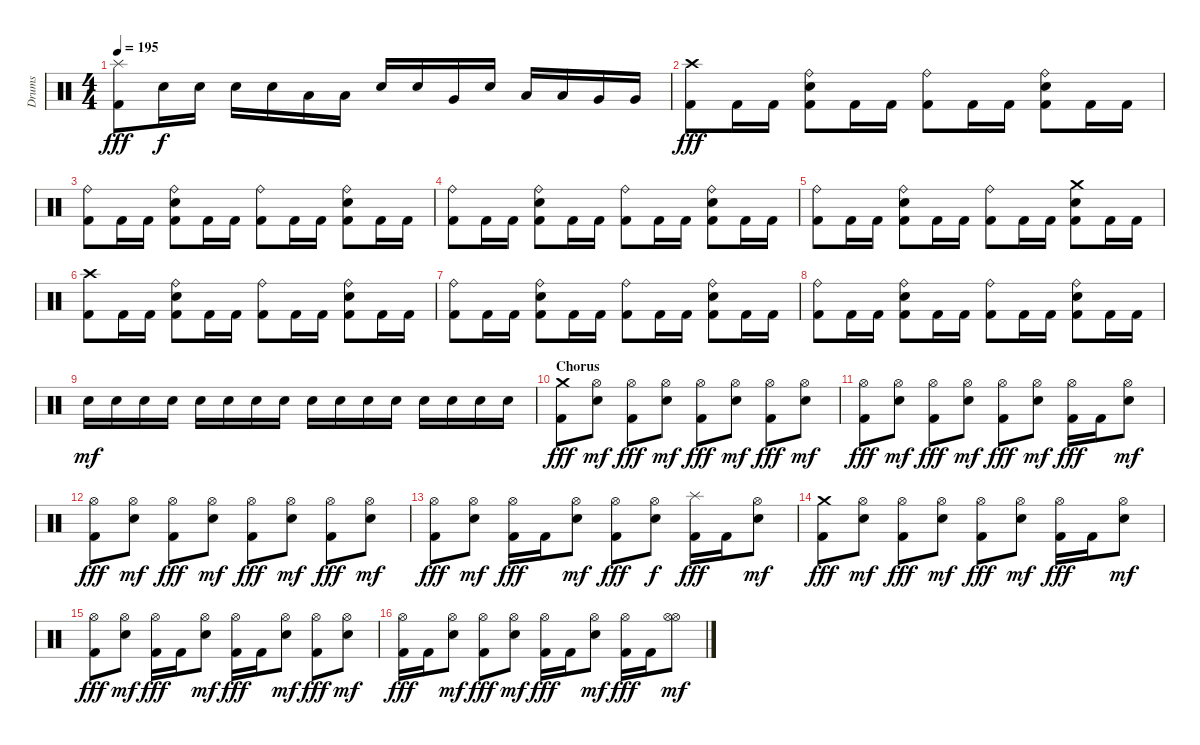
\track ("Drums" "Drums") {instrument percussion}
\staff {score}
\articulation defaults
\ts (4 4)
\tempo 195
\clef neutral
\ks c
("Splash (hit)" "Kick (hit) 2").8{dy fff} "Snare (hit) 2".16{dy f} "Snare (hit) 2".16 "Snare (hit) 2".16 "Snare (hit) 2".16 "Low Tom (hit)".16 "Low Tom (hit)".16 "Snare (hit) 2".16 "Snare (hit) 2".16 "Very Low Tom (hit)".16 "Snare (hit) 2".16 "Low Tom (hit)".16 "Low Tom (hit)".16 "Very Low Tom (hit)".16 "Very Low Tom (hit)".16 |
("Crash high (hit)" "Kick (hit) 2").8{dy fff} "Kick (hit) 2".16 "Kick (hit) 2".16 ("Ride (bell)" "Snare (hit) 2" "Kick (hit) 2").8 "Kick (hit) 2".16 "Kick (hit) 2".16 ("Ride (bell)" "Kick (hit) 2").8 "Kick (hit) 2".16 "Kick (hit) 2".16 ("Ride (bell)" "Snare (hit) 2" "Kick (hit) 2").8 "Kick (hit) 2".16 "Kick (hit) 2".16 |
("Ride (bell)" "Kick (hit) 2").8 "Kick (hit) 2".16 "Kick (hit) 2".16 ("Ride (bell)" "Snare (hit) 2" "Kick (hit) 2").8 "Kick (hit) 2".16 "Kick (hit) 2".16 ("Ride (bell)" "Kick (hit) 2").8 "Kick (hit) 2".16 "Kick (hit) 2".16 ("Ride (bell)" "Snare (hit) 2" "Kick (hit) 2").8 "Kick (hit) 2".16 "Kick (hit) 2".16 |
("Ride (bell)" "Kick (hit) 2").8 "Kick (hit) 2".16 "Kick (hit) 2".16 ("Ride (bell)" "Snare (hit) 2" "Kick (hit) 2").8 "Kick (hit) 2".16 "Kick (hit) 2".16 ("Ride (bell)" "Kick (hit) 2").8 "Kick (hit) 2".16 "Kick (hit) 2".16 ("Ride (bell)" "Snare (hit) 2" "Kick (hit) 2").8 "Kick (hit) 2".16 "Kick (hit) 2".16 |
("Ride (bell)" "Kick (hit) 2").8 "Kick (hit) 2".16 "Kick (hit) 2".16 ("Ride (bell)" "Snare (hit) 2" "Kick (hit) 2").8 "Kick (hit) 2".16 "Kick (hit) 2".16 ("Ride (bell)" "Kick (hit) 2").8 "Kick (hit) 2".16 "Kick (hit) 2".16 ("Crash medium (hit)" "Snare (hit) 2" "Kick (hit) 2").8 "Kick (hit) 2".16 "Kick (hit) 2".16 |
("Crash high (hit)" "Kick (hit) 2").8 "Kick (hit) 2".16 "Kick (hit) 2".16 ("Ride (bell)" "Snare (hit) 2" "Kick (hit) 2").8 "Kick (hit) 2".16 "Kick (hit) 2".16 ("Ride (bell)" "Kick (hit) 2").8 "Kick (hit) 2".16 "Kick (hit) 2".16 ("Ride (bell)" "Snare (hit) 2" "Kick (hit) 2").8 "Kick (hit) 2".16 "Kick (hit) 2".16 |
("Ride (bell)" "Kick (hit) 2").8 "Kick (hit) 2".16 "Kick (hit) 2".16 ("Ride (bell)" "Snare (hit) 2" "Kick (hit) 2").8 "Kick (hit) 2".16 "Kick (hit) 2".16 ("Ride (bell)" "Kick (hit) 2").8 "Kick (hit) 2".16 "Kick (hit) 2".16 ("Ride (bell)" "Snare (hit) 2" "Kick (hit) 2").8 "Kick (hit) 2".16 "Kick (hit) 2".16 |
("Ride (bell)" "Kick (hit) 2").8 "Kick (hit) 2".16 "Kick (hit) 2".16 ("Ride (bell)" "Snare (hit) 2" "Kick (hit) 2").8 "Kick (hit) 2".16 "Kick (hit) 2".16 ("Ride (bell)" "Kick (hit) 2").8 "Kick (hit) 2".16 "Kick (hit) 2".16 ("Ride (bell)" "Snare (hit) 2" "Kick (hit) 2").8 "Kick (hit) 2".16 "Kick (hit) 2".16 |
"Snare (hit) 2".16{dy mf} "Snare (hit) 2".16 "Snare (hit) 2".16 "Snare (hit) 2".16 "Snare (hit) 2".16 "Snare (hit) 2".16 "Snare (hit) 2".16 "Snare (hit) 2".16 "Snare (hit) 2".16 "Snare (hit) 2".16 "Snare (hit) 2".16 "Snare (hit) 2".16 "Snare (hit) 2".16 "Snare (hit) 2".16 "Snare (hit) 2".16 "Snare (hit) 2".16 |
\section ("" "Chorus")
("Crash medium (hit)" "Kick (hit) 2").8{dy fff} ("Hi-Hat (open)" "Snare (hit) 2").8{dy mf} ("Hi-Hat (open)" "Kick (hit) 2").8{dy fff} ("Hi-Hat (open)" "Snare (hit) 2").8{dy mf} ("Hi-Hat (open)" "Kick (hit) 2").8{dy fff} ("Hi-Hat (open)" "Snare (hit) 2").8{dy mf} ("Hi-Hat (open)" "Kick (hit) 2").8{dy fff} ("Hi-Hat (open)" "Snare (hit) 2").8{dy mf} |
("Hi-Hat (open)" "Kick (hit) 2").8{dy fff} ("Hi-Hat (open)" "Snare (hit) 2").8{dy mf} ("Hi-Hat (open)" "Kick (hit) 2").8{dy fff} ("Hi-Hat (open)" "Snare (hit) 2").8{dy mf} ("Hi-Hat (open)" "Kick (hit) 2").8{dy fff} ("Hi-Hat (open)" "Snare (hit) 2").8{dy mf} ("Hi-Hat (open)" "Kick (hit) 2").16{dy fff} "Kick (hit) 2".16 ("Hi-Hat (open)" "Snare (hit) 2").8{dy mf} |
("Hi-Hat (open)" "Kick (hit) 2").8{dy fff} ("Hi-Hat (open)" "Snare (hit) 2").8{dy mf} ("Hi-Hat (open)" "Kick (hit) 2").8{dy fff} ("Hi-Hat (open)" "Snare (hit) 2").8{dy mf} ("Hi-Hat (open)" "Kick (hit) 2").8{dy fff} ("Hi-Hat (open)" "Snare (hit) 2").8{dy mf} ("Hi-Hat (open)" "Kick (hit) 2").8{dy fff} ("Hi-Hat (open)" "Snare (hit) 2").8{dy mf} |
("Hi-Hat (open)" "Kick (hit) 2").8{dy fff} ("Hi-Hat (open)" "Snare (hit) 2").8{dy mf} ("Hi-Hat (open)" "Kick (hit) 2").16{dy fff} "Kick (hit) 2".16 ("Hi-Hat (open)" "Snare (hit) 2").8{dy mf} ("Hi-Hat (open)" "Kick (hit) 2").8{dy fff} ("Hi-Hat (open)" "Snare (hit) 2").8{dy f} ("Splash (hit)" "Kick (hit) 2").16{dy fff} "Kick (hit) 2".16 ("Hi-Hat (open)" "Snare (hit) 2").8{dy mf} |
("Crash medium (hit)" "Kick (hit) 2").8{dy fff} ("Hi-Hat (open)" "Snare (hit) 2").8{dy mf} ("Hi-Hat (open)" "Kick (hit) 2").8{dy fff} ("Hi-Hat (open)" "Snare (hit) 2").8{dy mf} ("Hi-Hat (open)" "Kick (hit) 2").8{dy fff} ("Hi-Hat (open)" "Snare (hit) 2").8{dy mf} ("Hi-Hat (open)" "Kick (hit) 2").16{dy fff} "Kick (hit) 2".16 ("Hi-Hat (open)" "Snare (hit) 2").8{dy mf} |
("Hi-Hat (open)" "Kick (hit) 2").8{dy fff} ("Hi-Hat (open)" "Snare (hit) 2").8{dy mf} ("Hi-Hat (open)" "Kick (hit) 2").16{dy fff} "Kick (hit) 2".16 ("Hi-Hat (open)" "Snare (hit) 2").8{dy mf} ("Hi-Hat (open)" "Kick (hit) 2").16{dy fff} "Kick (hit) 2".16 ("Hi-Hat (open)" "Snare (hit) 2").8{dy mf} ("Hi-Hat (open)" "Kick (hit) 2").8{dy fff} ("Hi-Hat (open)" "Snare (hit) 2").8{dy mf} |
("Hi-Hat (open)" "Kick (hit) 2").16{dy fff} "Kick (hit) 2".16 ("Hi-Hat (open)" "Snare (hit) 2").8{dy mf} ("Hi-Hat (open)" "Kick (hit) 2").8{dy fff} ("Hi-Hat (open)" "Snare (hit) 2").8{dy mf} ("Hi-Hat (open)" "Kick (hit) 2").16{dy fff} "Kick (hit) 2".16 ("Hi-Hat (open)" "Snare (hit) 2").8{dy mf} ("Hi-Hat (open)" "Kick (hit) 2").16{dy fff} "Kick (hit) 2".16 ("Hi-Hat (open)" "Hi-Hat (open)").8{dy mf}
